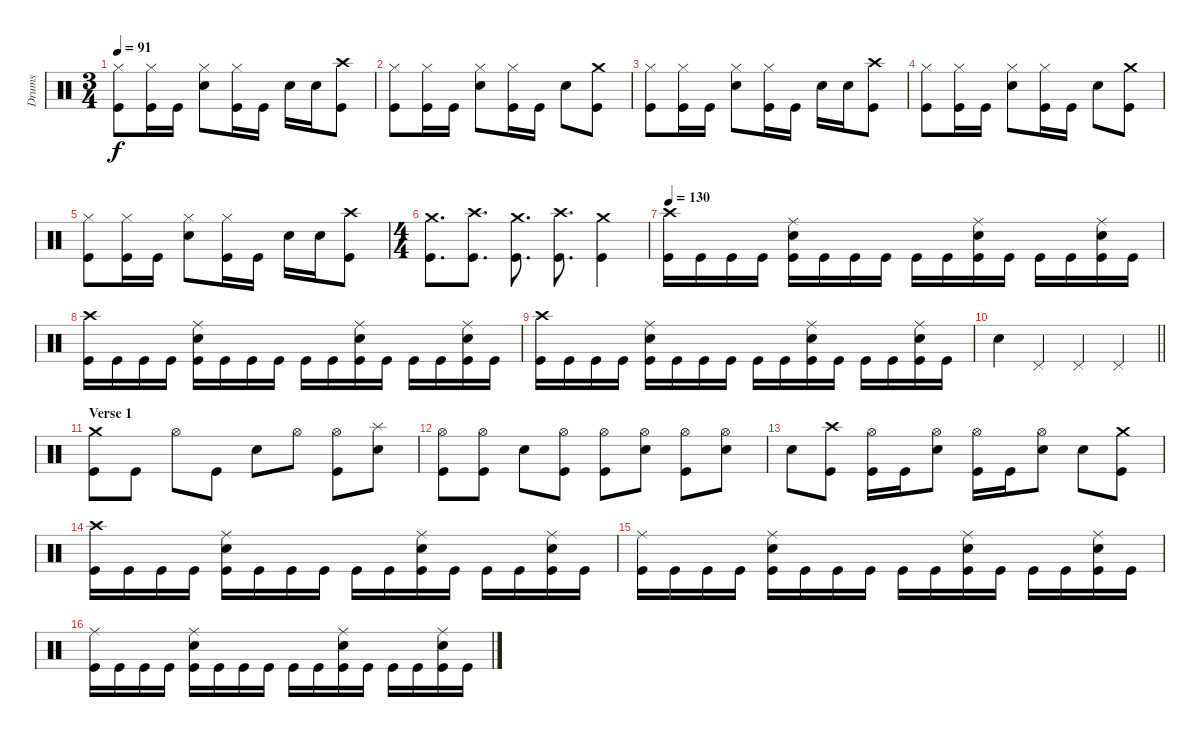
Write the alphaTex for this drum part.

\track ("Drums" "Drums") {instrument percussion}
\staff {score}
\articulation defaults
\ts (3 4)
\tempo 91
\clef neutral
\ks c
("Hi-Hat (closed)" "Kick (hit)").8{dy f} ("Hi-Hat (closed)" "Kick (hit)").16 "Kick (hit)".16 ("Hi-Hat (closed)" "Snare (hit) 2").8 ("Hi-Hat (closed)" "Kick (hit)").16 "Kick (hit)".16 "Snare (hit) 2".16 "Snare (hit) 2".16 ("Crash high (hit)" "Kick (hit)").8 |
("Hi-Hat (closed)" "Kick (hit)").8 ("Hi-Hat (closed)" "Kick (hit)").16 "Kick (hit)".16 ("Hi-Hat (closed)" "Snare (hit) 2").8 ("Hi-Hat (closed)" "Kick (hit)").16 "Kick (hit)".16 "Snare (hit) 2".8 ("Crash medium (hit)" "Kick (hit)").8 |
("Hi-Hat (closed)" "Kick (hit)").8 ("Hi-Hat (closed)" "Kick (hit)").16 "Kick (hit)".16 ("Hi-Hat (closed)" "Snare (hit) 2").8 ("Hi-Hat (closed)" "Kick (hit)").16 "Kick (hit)".16 "Snare (hit) 2".16 "Snare (hit) 2".16 ("Crash high (hit)" "Kick (hit)").8 |
("Hi-Hat (closed)" "Kick (hit)").8 ("Hi-Hat (closed)" "Kick (hit)").16 "Kick (hit)".16 ("Hi-Hat (closed)" "Snare (hit) 2").8 ("Hi-Hat (closed)" "Kick (hit)").16 "Kick (hit)".16 "Snare (hit) 2".8 ("Crash medium (hit)" "Kick (hit)").8 |
("Hi-Hat (closed)" "Kick (hit)").8 ("Hi-Hat (closed)" "Kick (hit)").16 "Kick (hit)".16 ("Hi-Hat (closed)" "Snare (hit) 2").8 ("Hi-Hat (closed)" "Kick (hit)").16 "Kick (hit)".16 "Snare (hit) 2".16 "Snare (hit) 2".16 ("Crash high (hit)" "Kick (hit)").8 |
\ts (4 4)
("Crash medium (hit)" "Kick (hit)").8{d} ("Crash high (hit)" "Kick (hit)").8{d} ("Crash medium (hit)" "Kick (hit)").8{d} ("Crash high (hit)" "Kick (hit)").8{d} ("Crash medium (hit)" "Kick (hit)").4 |
\tempo 130
("Crash high (hit)" "Kick (hit)").16 "Kick (hit)".16 "Kick (hit)".16 "Kick (hit)".16 ("Ride (middle)" "Snare (hit) 2" "Kick (hit)").16 "Kick (hit)".16 "Kick (hit)".16 "Kick (hit)".16 "Kick (hit)".16 "Kick (hit)".16 ("Ride (middle)" "Snare (hit) 2" "Kick (hit)").16 "Kick (hit)".16 "Kick (hit)".16 "Kick (hit)".16 ("Ride (middle)" "Snare (hit) 2" "Kick (hit)").16 "Kick (hit)".16 |
("Crash high (hit)" "Kick (hit)").16 "Kick (hit)".16 "Kick (hit)".16 "Kick (hit)".16 ("Ride (middle)" "Snare (hit) 2" "Kick (hit)").16 "Kick (hit)".16 "Kick (hit)".16 "Kick (hit)".16 "Kick (hit)".16 "Kick (hit)".16 ("Ride (middle)" "Snare (hit) 2" "Kick (hit)").16 "Kick (hit)".16 "Kick (hit)".16 "Kick (hit)".16 ("Ride (middle)" "Snare (hit) 2" "Kick (hit)").16 "Kick (hit)".16 |
("Crash high (hit)" "Kick (hit)").16 "Kick (hit)".16 "Kick (hit)".16 "Kick (hit)".16 ("Ride (middle)" "Snare (hit) 2" "Kick (hit)").16 "Kick (hit)".16 "Kick (hit)".16 "Kick (hit)".16 "Kick (hit)".16 "Kick (hit)".16 ("Ride (middle)" "Snare (hit) 2" "Kick (hit)").16 "Kick (hit)".16 "Kick (hit)".16 "Kick (hit)".16 ("Ride (middle)" "Snare (hit) 2" "Kick (hit)").16 "Kick (hit)".16 |
\barLineRight lightlight "Snare (hit) 2".4 "Pedal Hi-Hat (hit)".4 "Pedal Hi-Hat (hit)".4 "Pedal Hi-Hat (hit)".4
|
\section ("" "Verse 1")
("Crash medium (hit)" "Kick (hit)").8 "Kick (hit)".8 "Hi-Hat (open)".8 "Kick (hit)".8 "Snare (hit) 2".8 "Hi-Hat (open)".8 ("Hi-Hat (open)" "Kick (hit)").8 ("Splash (hit)" "Snare (hit) 2").8 |
("Hi-Hat (open)" "Kick (hit)").8 ("Hi-Hat (open)" "Kick (hit)").8 "Snare (hit) 2".8 ("Hi-Hat (open)" "Kick (hit)").8 ("Hi-Hat (open)" "Kick (hit)").8 ("Hi-Hat (open)" "Snare (hit) 2").8 ("Hi-Hat (open)" "Kick (hit)").8 ("Hi-Hat (open)" "Snare (hit) 2").8 |
"Snare (hit) 2".8 ("Crash high (hit)" "Kick (hit)").8 ("Hi-Hat (open)" "Kick (hit)").16 "Kick (hit)".16 ("Hi-Hat (open)" "Snare (hit) 2").8 ("Hi-Hat (open)" "Kick (hit)").16 "Kick (hit)".16 ("Hi-Hat (open)" "Snare (hit) 2").8 "Snare (hit) 2".8 ("Crash medium (hit)" "Kick (hit)").8 |
("Crash high (hit)" "Kick (hit)").16 "Kick (hit)".16 "Kick (hit)".16 "Kick (hit)".16 ("Ride (middle)" "Snare (hit) 2" "Kick (hit)").16 "Kick (hit)".16 "Kick (hit)".16 "Kick (hit)".16 "Kick (hit)".16 "Kick (hit)".16 ("Ride (middle)" "Snare (hit) 2" "Kick (hit)").16 "Kick (hit)".16 "Kick (hit)".16 "Kick (hit)".16 ("Ride (middle)" "Snare (hit) 2" "Kick (hit)").16 "Kick (hit)".16 |
("Ride (middle)" "Kick (hit)").16 "Kick (hit)".16 "Kick (hit)".16 "Kick (hit)".16 ("Ride (middle)" "Snare (hit) 2" "Kick (hit)").16 "Kick (hit)".16 "Kick (hit)".16 "Kick (hit)".16 "Kick (hit)".16 "Kick (hit)".16 ("Ride (middle)" "Snare (hit) 2" "Kick (hit)").16 "Kick (hit)".16 "Kick (hit)".16 "Kick (hit)".16 ("Ride (middle)" "Snare (hit) 2" "Kick (hit)").16 "Kick (hit)".16 |
("Ride (middle)" "Kick (hit)").16 "Kick (hit)".16 "Kick (hit)".16 "Kick (hit)".16 ("Ride (middle)" "Snare (hit) 2" "Kick (hit)").16 "Kick (hit)".16 "Kick (hit)".16 "Kick (hit)".16 "Kick (hit)".16 "Kick (hit)".16 ("Ride (middle)" "Snare (hit) 2" "Kick (hit)").16 "Kick (hit)".16 "Kick (hit)".16 "Kick (hit)".16 ("Ride (middle)" "Snare (hit) 2" "Kick (hit)").16 "Kick (hit)".16
